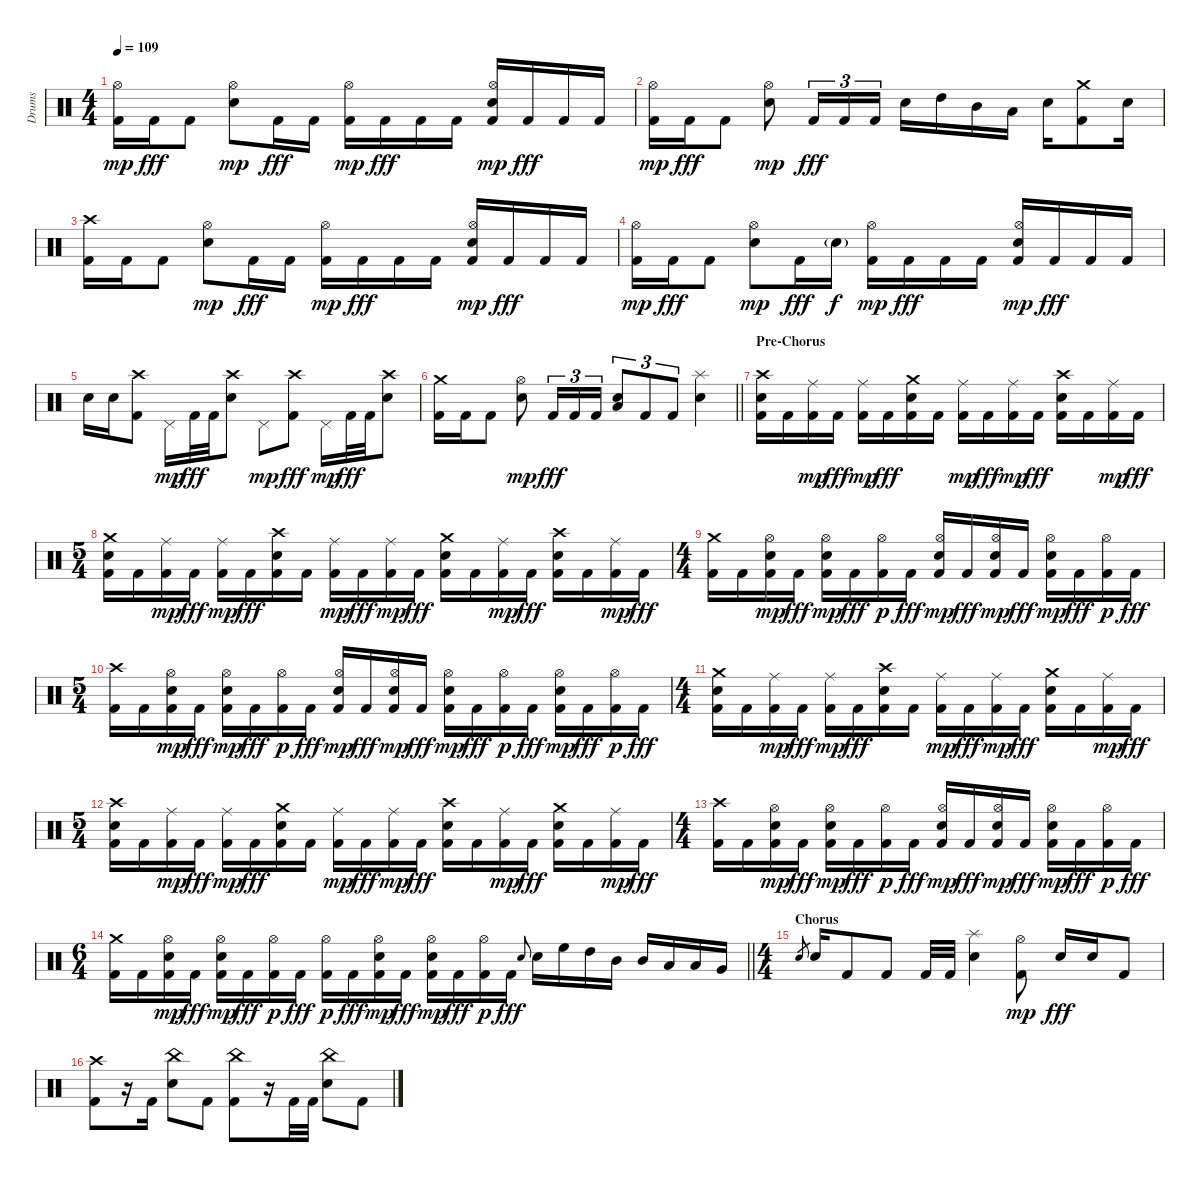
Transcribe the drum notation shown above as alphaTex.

\track ("Drums" "Drums") {instrument percussion}
\staff {score}
\articulation defaults
\ts (4 4)
\tempo 109
\clef neutral
\ks c
("Kick (hit) 2" "Hi-Hat (open)").16{dy mp} "Kick (hit) 2".16{dy fff} "Kick (hit) 2".8 ("Electric Snare (hit)" "Hi-Hat (open)").8{dy mp} "Kick (hit) 2".16{dy fff} "Kick (hit) 2".16 ("Kick (hit) 2" "Hi-Hat (open)").16{dy mp} "Kick (hit) 2".16{dy fff} "Kick (hit) 2".16 "Kick (hit) 2".16 ("Kick (hit) 2" "Electric Snare (hit)" "Hi-Hat (open)").16{dy mp} "Kick (hit) 2".16{dy fff} "Kick (hit) 2".16 "Kick (hit) 2".16 |
("Kick (hit) 2" "Hi-Hat (open)").16{dy mp} "Kick (hit) 2".16{dy fff} "Kick (hit) 2".8 ("Electric Snare (hit)" "Hi-Hat (open)").8{dy mp} "Kick (hit) 2".16{tu (3 2) dy fff} "Kick (hit) 2".16{tu (3 2)} "Kick (hit) 2".16{tu (3 2)} "Electric Snare (hit)".16 "High Tom (hit)".16 "Mid Tom (hit)".16 "Low Tom (hit)".16 "Electric Snare (hit)".16 ("Kick (hit) 2" "Crash medium (hit)").8 "Electric Snare (hit)".16 |
("Kick (hit) 2" "Crash high (hit)").16 "Kick (hit) 2".16 "Kick (hit) 2".8 ("Electric Snare (hit)" "Hi-Hat (open)").8{dy mp} "Kick (hit) 2".16{dy fff} "Kick (hit) 2".16 ("Kick (hit) 2" "Hi-Hat (open)").16{dy mp} "Kick (hit) 2".16{dy fff} "Kick (hit) 2".16 "Kick (hit) 2".16 ("Kick (hit) 2" "Electric Snare (hit)" "Hi-Hat (open)").16{dy mp} "Kick (hit) 2".16{dy fff} "Kick (hit) 2".16 "Kick (hit) 2".16 |
("Kick (hit) 2" "Hi-Hat (open)").16{dy mp} "Kick (hit) 2".16{dy fff} "Kick (hit) 2".8 ("Electric Snare (hit)" "Hi-Hat (open)").8{dy mp} "Kick (hit) 2".16{dy fff} "Electric Snare (hit)"{g}.16{dy f} ("Kick (hit) 2" "Hi-Hat (open)").16{dy mp} "Kick (hit) 2".16{dy fff} "Kick (hit) 2".16 "Kick (hit) 2".16 ("Kick (hit) 2" "Electric Snare (hit)" "Hi-Hat (open)").16{dy mp} "Kick (hit) 2".16{dy fff} "Kick (hit) 2".16 "Kick (hit) 2".16 |
"Electric Snare (hit)".16 "Electric Snare (hit)".16 ("Kick (hit) 2" "Crash high (hit)").8 "Pedal Hi-Hat (hit)".16{dy mp} "Kick (hit) 2".32{dy fff} "Kick (hit) 2".32 ("Electric Snare (hit)" "Crash high (hit)").8 "Pedal Hi-Hat (hit)".8{dy mp} ("Kick (hit) 2" "Crash high (hit)").8{dy fff} "Pedal Hi-Hat (hit)".16{dy mp} "Kick (hit) 2".32{dy fff} "Kick (hit) 2".32 ("Electric Snare (hit)" "Crash high (hit)").8 |
\barLineRight lightlight
("Kick (hit) 2" "Crash medium (hit)").16 "Kick (hit) 2".16 "Kick (hit) 2".8 ("Electric Snare (hit)" "Hi-Hat (open)").8{dy mp} "Kick (hit) 2".16{tu (3 2) dy fff} "Kick (hit) 2".16{tu (3 2)} "Kick (hit) 2".16{tu (3 2)} ("Electric Snare (hit)" "Low Floor Tom (hit)").8{tu (3 2)} "Kick (hit) 2".8{tu (3 2)} "Kick (hit) 2".8{tu (3 2)} ("Electric Snare (hit)" "Splash (hit)").4 |
\section ("" "Pre-Chorus")
("Kick (hit) 2" "Electric Snare (hit)" "Crash high (hit)").16 "Kick (hit) 2".16 ("Kick (hit) 2" "Ride (middle)").16{dy mp} "Kick (hit) 2".16{dy fff} ("Kick (hit) 2" "Ride (middle)").16{dy mp} "Kick (hit) 2".16{dy fff} ("Kick (hit) 2" "Electric Snare (hit)" "Crash medium (hit)").16 "Kick (hit) 2".16 ("Kick (hit) 2" "Ride (middle)").16{dy mp} "Kick (hit) 2".16{dy fff} ("Kick (hit) 2" "Ride (middle)").16{dy mp} "Kick (hit) 2".16{dy fff} ("Kick (hit) 2" "Electric Snare (hit)" "Crash high (hit)").16 "Kick (hit) 2".16 ("Kick (hit) 2" "Ride (middle)").16{dy mp} "Kick (hit) 2".16{dy fff} |
\ts (5 4)
("Kick (hit) 2" "Electric Snare (hit)" "Crash medium (hit)").16 "Kick (hit) 2".16 ("Kick (hit) 2" "Ride (middle)").16{dy mp} "Kick (hit) 2".16{dy fff} ("Kick (hit) 2" "Ride (middle)").16{dy mp} "Kick (hit) 2".16{dy fff} ("Kick (hit) 2" "Electric Snare (hit)" "Crash high (hit)").16 "Kick (hit) 2".16 ("Kick (hit) 2" "Ride (middle)").16{dy mp} "Kick (hit) 2".16{dy fff} ("Kick (hit) 2" "Ride (middle)").16{dy mp} "Kick (hit) 2".16{dy fff} ("Kick (hit) 2" "Electric Snare (hit)" "Crash medium (hit)").16 "Kick (hit) 2".16 ("Kick (hit) 2" "Ride (middle)").16{dy mp} "Kick (hit) 2".16{dy fff} ("Kick (hit) 2" "Electric Snare (hit)" "Crash high (hit)").16 "Kick (hit) 2".16 ("Kick (hit) 2" "Ride (middle)").16{dy mp} "Kick (hit) 2".16{dy fff} |
\ts (4 4)
("Kick (hit) 2" "Crash medium (hit)").16 "Kick (hit) 2".16 ("Kick (hit) 2" "Electric Snare (hit)" "Hi-Hat (open)").16{dy mp} "Kick (hit) 2".16{dy fff} ("Kick (hit) 2" "Electric Snare (hit)" "Hi-Hat (open)").16{dy mp} "Kick (hit) 2".16{dy fff} ("Kick (hit) 2" "Hi-Hat (open)").16{dy p} "Kick (hit) 2".16{dy fff} ("Kick (hit) 2" "Electric Snare (hit)" "Hi-Hat (open)").16{dy mp} "Kick (hit) 2".16{dy fff} ("Kick (hit) 2" "Electric Snare (hit)" "Hi-Hat (open)").16{dy mp} "Kick (hit) 2".16{dy fff} ("Kick (hit) 2" "Electric Snare (hit)" "Hi-Hat (open)").16{dy mp} "Kick (hit) 2".16{dy fff} ("Kick (hit) 2" "Hi-Hat (open)").16{dy p} "Kick (hit) 2".16{dy fff} |
\ts (5 4)
("Kick (hit) 2" "Crash high (hit)").16 "Kick (hit) 2".16 ("Kick (hit) 2" "Electric Snare (hit)" "Hi-Hat (open)").16{dy mp} "Kick (hit) 2".16{dy fff} ("Kick (hit) 2" "Electric Snare (hit)" "Hi-Hat (open)").16{dy mp} "Kick (hit) 2".16{dy fff} ("Kick (hit) 2" "Hi-Hat (open)").16{dy p} "Kick (hit) 2".16{dy fff} ("Kick (hit) 2" "Electric Snare (hit)" "Hi-Hat (open)").16{dy mp} "Kick (hit) 2".16{dy fff} ("Kick (hit) 2" "Electric Snare (hit)" "Hi-Hat (open)").16{dy mp} "Kick (hit) 2".16{dy fff} ("Kick (hit) 2" "Electric Snare (hit)" "Hi-Hat (open)").16{dy mp} "Kick (hit) 2".16{dy fff} ("Kick (hit) 2" "Hi-Hat (open)").16{dy p} "Kick (hit) 2".16{dy fff} ("Kick (hit) 2" "Electric Snare (hit)" "Hi-Hat (open)").16{dy mp} "Kick (hit) 2".16{dy fff} ("Kick (hit) 2" "Hi-Hat (open)").16{dy p} "Kick (hit) 2".16{dy fff} |
\ts (4 4)
("Kick (hit) 2" "Electric Snare (hit)" "Crash medium (hit)").16 "Kick (hit) 2".16 ("Kick (hit) 2" "Ride (middle)").16{dy mp} "Kick (hit) 2".16{dy fff} ("Kick (hit) 2" "Ride (middle)").16{dy mp} "Kick (hit) 2".16{dy fff} ("Kick (hit) 2" "Electric Snare (hit)" "Crash high (hit)").16 "Kick (hit) 2".16 ("Kick (hit) 2" "Ride (middle)").16{dy mp} "Kick (hit) 2".16{dy fff} ("Kick (hit) 2" "Ride (middle)").16{dy mp} "Kick (hit) 2".16{dy fff} ("Kick (hit) 2" "Electric Snare (hit)" "Crash medium (hit)").16 "Kick (hit) 2".16 ("Kick (hit) 2" "Ride (middle)").16{dy mp} "Kick (hit) 2".16{dy fff} |
\ts (5 4)
("Kick (hit) 2" "Electric Snare (hit)" "Crash high (hit)").16 "Kick (hit) 2".16 ("Kick (hit) 2" "Ride (middle)").16{dy mp} "Kick (hit) 2".16{dy fff} ("Kick (hit) 2" "Ride (middle)").16{dy mp} "Kick (hit) 2".16{dy fff} ("Kick (hit) 2" "Electric Snare (hit)" "Crash medium (hit)").16 "Kick (hit) 2".16 ("Kick (hit) 2" "Ride (middle)").16{dy mp} "Kick (hit) 2".16{dy fff} ("Kick (hit) 2" "Ride (middle)").16{dy mp} "Kick (hit) 2".16{dy fff} ("Kick (hit) 2" "Electric Snare (hit)" "Crash high (hit)").16 "Kick (hit) 2".16 ("Kick (hit) 2" "Ride (middle)").16{dy mp} "Kick (hit) 2".16{dy fff} ("Kick (hit) 2" "Electric Snare (hit)" "Crash medium (hit)").16 "Kick (hit) 2".16 ("Kick (hit) 2" "Ride (middle)").16{dy mp} "Kick (hit) 2".16{dy fff} |
\ts (4 4)
("Kick (hit) 2" "Crash high (hit)").16 "Kick (hit) 2".16 ("Kick (hit) 2" "Electric Snare (hit)" "Hi-Hat (open)").16{dy mp} "Kick (hit) 2".16{dy fff} ("Kick (hit) 2" "Electric Snare (hit)" "Hi-Hat (open)").16{dy mp} "Kick (hit) 2".16{dy fff} ("Kick (hit) 2" "Hi-Hat (open)").16{dy p} "Kick (hit) 2".16{dy fff} ("Kick (hit) 2" "Electric Snare (hit)" "Hi-Hat (open)").16{dy mp} "Kick (hit) 2".16{dy fff} ("Kick (hit) 2" "Electric Snare (hit)" "Hi-Hat (open)").16{dy mp} "Kick (hit) 2".16{dy fff} ("Kick (hit) 2" "Electric Snare (hit)" "Hi-Hat (open)").16{dy mp} "Kick (hit) 2".16{dy fff} ("Kick (hit) 2" "Hi-Hat (open)").16{dy p} "Kick (hit) 2".16{dy fff} |
\ts (6 4)
\barLineRight lightlight
("Kick (hit) 2" "Crash medium (hit)").16 "Kick (hit) 2".16 ("Kick (hit) 2" "Electric Snare (hit)" "Hi-Hat (open)").16{dy mp} "Kick (hit) 2".16{dy fff} ("Kick (hit) 2" "Electric Snare (hit)" "Hi-Hat (open)").16{dy mp} "Kick (hit) 2".16{dy fff} ("Kick (hit) 2" "Hi-Hat (open)").16{dy p} "Kick (hit) 2".16{dy fff} ("Kick (hit) 2" "Hi-Hat (open)").16{dy p} "Kick (hit) 2".16{dy fff} ("Kick (hit) 2" "Electric Snare (hit)" "Hi-Hat (open)").16{dy mp} "Kick (hit) 2".16{dy fff} ("Kick (hit) 2" "Electric Snare (hit)" "Hi-Hat (open)").16{dy mp} "Kick (hit) 2".16{dy fff} ("Kick (hit) 2" "Hi-Hat (open)").16{dy p} "Kick (hit) 2".16{dy fff} "Electric Snare (hit)".8{gr onbeat} "Electric Snare (hit)".16 "High Floor Tom (hit)".16 "High Tom (hit)".16 "Mid Tom (hit)".16 "Mid Tom (hit)".16 "Low Tom (hit)".16 "Low Tom (hit)".16 "Very Low Tom (hit)".16 |
\ts (4 4)
\section ("" "Chorus")
"Electric Snare (hit)".8{gr} "Electric Snare (hit)".16 "Kick (hit) 2".8 "Kick (hit) 2".8 "Kick (hit) 2".32 "Kick (hit) 2".32 ("Electric Snare (hit)" "Splash (hit)").4 ("Kick (hit) 2" "Hi-Hat (open)").8{dy mp} "Electric Snare (hit)".16{dy fff} "Electric Snare (hit)".16 "Kick (hit) 2".8 |
("Kick (hit) 2" "Crash high (hit)").8 r.16 "Kick (hit) 2".16 ("Electric Snare (hit)" "China (hit)").8 "Kick (hit) 2".8 ("Kick (hit) 2" "China (hit)").8 r.16 "Kick (hit) 2".32 "Kick (hit) 2".32 ("Electric Snare (hit)" "China (hit)").8 "Kick (hit) 2".8
